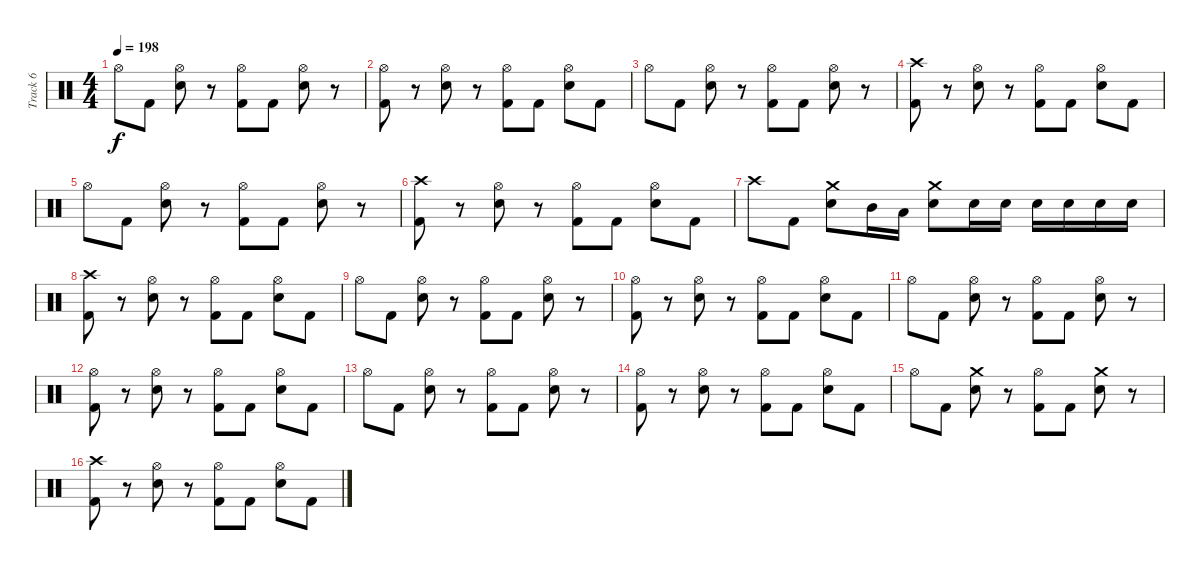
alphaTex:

\track ("Track 6" "Track 6") {instrument percussion}
\staff {score}
\articulation defaults
\ts (4 4)
\tempo 198
\clef neutral
\ks c "Hi-Hat (open)".8{dy f} "Kick (hit) 2".8
("Hi-Hat (open)" "Electric Snare (hit)").8 r.8 ("Hi-Hat (open)" "Kick (hit) 2").8 "Kick (hit) 2".8 ("Hi-Hat (open)" "Electric Snare (hit)").8 r.8 |
("Hi-Hat (open)" "Kick (hit) 2").8 r.8 ("Hi-Hat (open)" "Electric Snare (hit)").8 r.8 ("Hi-Hat (open)" "Kick (hit) 2").8 "Kick (hit) 2".8 ("Hi-Hat (open)" "Electric Snare (hit)").8 "Kick (hit) 2".8 |
"Hi-Hat (open)".8 "Kick (hit) 2".8 ("Hi-Hat (open)" "Electric Snare (hit)").8 r.8 ("Hi-Hat (open)" "Kick (hit) 2").8 "Kick (hit) 2".8 ("Hi-Hat (open)" "Electric Snare (hit)").8 r.8 |
("Crash high (hit)" "Kick (hit) 2").8 r.8 ("Hi-Hat (open)" "Electric Snare (hit)").8 r.8 ("Hi-Hat (open)" "Kick (hit) 2").8 "Kick (hit) 2".8 ("Hi-Hat (open)" "Electric Snare (hit)").8 "Kick (hit) 2".8 |
"Hi-Hat (open)".8 "Kick (hit) 2".8 ("Hi-Hat (open)" "Electric Snare (hit)").8 r.8 ("Hi-Hat (open)" "Kick (hit) 2").8 "Kick (hit) 2".8 ("Hi-Hat (open)" "Electric Snare (hit)").8 r.8 |
("Crash high (hit)" "Kick (hit) 2").8 r.8 ("Hi-Hat (open)" "Electric Snare (hit)").8 r.8 ("Hi-Hat (open)" "Kick (hit) 2").8 "Kick (hit) 2".8 ("Hi-Hat (open)" "Electric Snare (hit)").8 "Kick (hit) 2".8 |
"Crash high (hit)".8 "Kick (hit) 2".8 ("Crash medium (hit)" "Electric Snare (hit)").8 "Mid Tom (hit)".16 "Low Tom (hit)".16 ("Crash medium (hit)" "Electric Snare (hit)").8 "Electric Snare (hit)".16 "Electric Snare (hit)".16 "Electric Snare (hit)".16 "Electric Snare (hit)".16 "Electric Snare (hit)".16 "Electric Snare (hit)".16 |
("Crash high (hit)" "Kick (hit) 2").8 r.8 ("Hi-Hat (open)" "Electric Snare (hit)").8 r.8 ("Hi-Hat (open)" "Kick (hit) 2").8 "Kick (hit) 2".8 ("Hi-Hat (open)" "Electric Snare (hit)").8 "Kick (hit) 2".8 |
"Hi-Hat (open)".8 "Kick (hit) 2".8 ("Hi-Hat (open)" "Electric Snare (hit)").8 r.8 ("Hi-Hat (open)" "Kick (hit) 2").8 "Kick (hit) 2".8 ("Hi-Hat (open)" "Electric Snare (hit)").8 r.8 |
("Hi-Hat (open)" "Kick (hit) 2").8 r.8 ("Hi-Hat (open)" "Electric Snare (hit)").8 r.8 ("Hi-Hat (open)" "Kick (hit) 2").8 "Kick (hit) 2".8 ("Hi-Hat (open)" "Electric Snare (hit)").8 "Kick (hit) 2".8 |
"Hi-Hat (open)".8 "Kick (hit) 2".8 ("Hi-Hat (open)" "Electric Snare (hit)").8 r.8 ("Hi-Hat (open)" "Kick (hit) 2").8 "Kick (hit) 2".8 ("Hi-Hat (open)" "Electric Snare (hit)").8 r.8 |
("Hi-Hat (open)" "Kick (hit) 2").8 r.8 ("Hi-Hat (open)" "Electric Snare (hit)").8 r.8 ("Hi-Hat (open)" "Kick (hit) 2").8 "Kick (hit) 2".8 ("Hi-Hat (open)" "Electric Snare (hit)").8 "Kick (hit) 2".8 |
"Hi-Hat (open)".8 "Kick (hit) 2".8 ("Hi-Hat (open)" "Electric Snare (hit)").8 r.8 ("Hi-Hat (open)" "Kick (hit) 2").8 "Kick (hit) 2".8 ("Hi-Hat (open)" "Electric Snare (hit)").8 r.8 |
("Hi-Hat (open)" "Kick (hit) 2").8 r.8 ("Hi-Hat (open)" "Electric Snare (hit)").8 r.8 ("Hi-Hat (open)" "Kick (hit) 2").8 "Kick (hit) 2".8 ("Hi-Hat (open)" "Electric Snare (hit)").8 "Kick (hit) 2".8 |
"Hi-Hat (open)".8 "Kick (hit) 2".8 ("Crash medium (hit)" "Electric Snare (hit)").8 r.8 ("Hi-Hat (open)" "Kick (hit) 2").8 "Kick (hit) 2".8 ("Crash medium (hit)" "Electric Snare (hit)").8 r.8 |
("Crash high (hit)" "Kick (hit) 2").8 r.8 ("Hi-Hat (open)" "Electric Snare (hit)").8 r.8 ("Hi-Hat (open)" "Kick (hit) 2").8 "Kick (hit) 2".8 ("Hi-Hat (open)" "Electric Snare (hit)").8 "Kick (hit) 2".8
